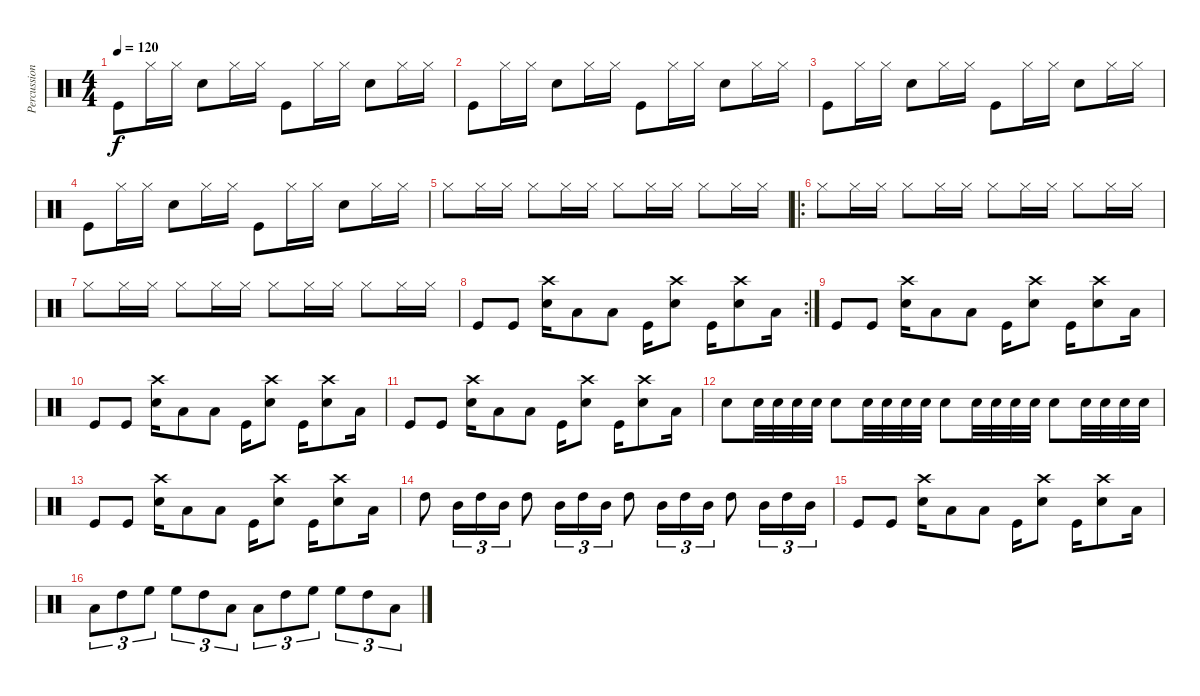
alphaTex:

\track ("Percussion" "Percussion") {instrument percussion}
\staff {score}
\articulation defaults
\ts (4 4)
\tempo 120
\clef neutral
\ks c "Kick (hit)".8{dy f} "Hi-Hat (closed)".16 "Hi-Hat (closed)".16 "Snare (hit) 2".8 "Hi-Hat (closed)".16 "Hi-Hat (closed)".16 "Kick (hit)".8 "Hi-Hat (closed)".16 "Hi-Hat (closed)".16 "Snare (hit) 2".8 "Hi-Hat (closed)".16 "Hi-Hat (closed)".16
|
"Kick (hit)".8 "Hi-Hat (closed)".16 "Hi-Hat (closed)".16 "Snare (hit) 2".8 "Hi-Hat (closed)".16 "Hi-Hat (closed)".16 "Kick (hit)".8 "Hi-Hat (closed)".16 "Hi-Hat (closed)".16 "Snare (hit) 2".8 "Hi-Hat (closed)".16 "Hi-Hat (closed)".16 |
"Kick (hit)".8 "Hi-Hat (closed)".16 "Hi-Hat (closed)".16 "Snare (hit) 2".8 "Hi-Hat (closed)".16 "Hi-Hat (closed)".16 "Kick (hit)".8 "Hi-Hat (closed)".16 "Hi-Hat (closed)".16 "Snare (hit) 2".8 "Hi-Hat (closed)".16 "Hi-Hat (closed)".16 |
"Kick (hit)".8 "Hi-Hat (closed)".16 "Hi-Hat (closed)".16 "Snare (hit) 2".8 "Hi-Hat (closed)".16 "Hi-Hat (closed)".16 "Kick (hit)".8 "Hi-Hat (closed)".16 "Hi-Hat (closed)".16 "Snare (hit) 2".8 "Hi-Hat (closed)".16 "Hi-Hat (closed)".16 |
"Hi-Hat (closed)".8 "Hi-Hat (closed)".16 "Hi-Hat (closed)".16 "Hi-Hat (closed)".8 "Hi-Hat (closed)".16 "Hi-Hat (closed)".16 "Hi-Hat (closed)".8 "Hi-Hat (closed)".16 "Hi-Hat (closed)".16 "Hi-Hat (closed)".8 "Hi-Hat (closed)".16 "Hi-Hat (closed)".16 |
\ro "Hi-Hat (closed)".8 "Hi-Hat (closed)".16 "Hi-Hat (closed)".16 "Hi-Hat (closed)".8 "Hi-Hat (closed)".16 "Hi-Hat (closed)".16 "Hi-Hat (closed)".8 "Hi-Hat (closed)".16 "Hi-Hat (closed)".16 "Hi-Hat (closed)".8 "Hi-Hat (closed)".16 "Hi-Hat (closed)".16
|
"Hi-Hat (closed)".8 "Hi-Hat (closed)".16 "Hi-Hat (closed)".16 "Hi-Hat (closed)".8 "Hi-Hat (closed)".16 "Hi-Hat (closed)".16 "Hi-Hat (closed)".8 "Hi-Hat (closed)".16 "Hi-Hat (closed)".16 "Hi-Hat (closed)".8 "Hi-Hat (closed)".16 "Hi-Hat (closed)".16 |
\rc 2 "Kick (hit)".8 "Kick (hit)".8
("Crash high (hit)" "Snare (hit) 2").16 "Low Tom (hit)".8 "Low Tom (hit)".8 "Kick (hit)".16 ("Crash high (hit)" "Snare (hit) 2").8 "Kick (hit)".16 ("Snare (hit) 2" "Crash high (hit)").8 "Low Tom (hit)".16 |
"Kick (hit)".8 "Kick (hit)".8 ("Crash high (hit)" "Snare (hit) 2").16 "Low Tom (hit)".8 "Low Tom (hit)".8 "Kick (hit)".16 ("Crash high (hit)" "Snare (hit) 2").8 "Kick (hit)".16 ("Snare (hit) 2" "Crash high (hit)").8 "Low Tom (hit)".16 |
"Kick (hit)".8 "Kick (hit)".8 ("Crash high (hit)" "Snare (hit) 2").16 "Low Tom (hit)".8 "Low Tom (hit)".8 "Kick (hit)".16 ("Crash high (hit)" "Snare (hit) 2").8 "Kick (hit)".16 ("Snare (hit) 2" "Crash high (hit)").8 "Low Tom (hit)".16 |
"Kick (hit)".8 "Kick (hit)".8 ("Crash high (hit)" "Snare (hit) 2").16 "Low Tom (hit)".8 "Low Tom (hit)".8 "Kick (hit)".16 ("Crash high (hit)" "Snare (hit) 2").8 "Kick (hit)".16 ("Snare (hit) 2" "Crash high (hit)").8 "Low Tom (hit)".16 |
"Snare (hit) 2".8{volume 16} "Snare (hit) 2".32 "Snare (hit) 2".32 "Snare (hit) 2".32 "Snare (hit) 2".32 "Snare (hit) 2".8 "Snare (hit) 2".32 "Snare (hit) 2".32 "Snare (hit) 2".32 "Snare (hit) 2".32 "Snare (hit) 2".8 "Snare (hit) 2".32 "Snare (hit) 2".32 "Snare (hit) 2".32 "Snare (hit) 2".32 "Snare (hit) 2".8 "Snare (hit) 2".32 "Snare (hit) 2".32 "Snare (hit) 2".32 "Snare (hit) 2".32 |
"Kick (hit)".8{volume 13} "Kick (hit)".8 ("Crash high (hit)" "Snare (hit) 2").16 "Low Tom (hit)".8 "Low Tom (hit)".8 "Kick (hit)".16 ("Crash high (hit)" "Snare (hit) 2").8 "Kick (hit)".16 ("Snare (hit) 2" "Crash high (hit)").8 "Low Tom (hit)".16 |
"High Tom (hit)".8{volume 16} "Mid Tom (hit)".16{tu (3 2)} "High Tom (hit)".16{tu (3 2)} "Mid Tom (hit)".16{tu (3 2)} "High Tom (hit)".8 "Mid Tom (hit)".16{tu (3 2)} "High Tom (hit)".16{tu (3 2)} "Mid Tom (hit)".16{tu (3 2)} "High Tom (hit)".8 "Mid Tom (hit)".16{tu (3 2)} "High Tom (hit)".16{tu (3 2)} "Mid Tom (hit)".16{tu (3 2)} "High Tom (hit)".8 "Mid Tom (hit)".16{tu (3 2)} "High Tom (hit)".16{tu (3 2)} "Mid Tom (hit)".16{tu (3 2)} |
"Kick (hit)".8{volume 13} "Kick (hit)".8 ("Crash high (hit)" "Snare (hit) 2").16 "Low Tom (hit)".8 "Low Tom (hit)".8 "Kick (hit)".16 ("Crash high (hit)" "Snare (hit) 2").8 "Kick (hit)".16 ("Snare (hit) 2" "Crash high (hit)").8 "Low Tom (hit)".16 |
"Low Tom (hit)".8{tu (3 2) volume 16} "High Tom (hit)".8{tu (3 2)} "High Floor Tom (hit)".8{tu (3 2)} "High Floor Tom (hit)".8{tu (3 2)} "High Tom (hit)".8{tu (3 2)} "Low Tom (hit)".8{tu (3 2)} "Low Tom (hit)".8{tu (3 2)} "High Tom (hit)".8{tu (3 2)} "High Floor Tom (hit)".8{tu (3 2)} "High Floor Tom (hit)".8{tu (3 2)} "High Tom (hit)".8{tu (3 2)} "Low Tom (hit)".8{tu (3 2)}
